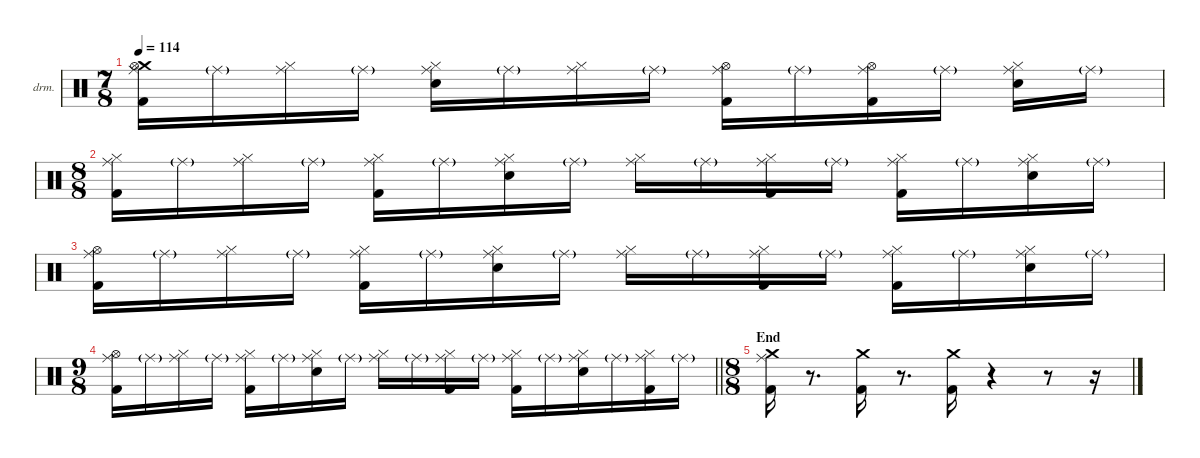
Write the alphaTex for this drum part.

\defaultSystemsLayout 4
\hideDynamics
\bracketExtendMode nobrackets
\firstSystemTrackNameOrientation horizontal
\otherSystemsTrackNameOrientation horizontal
\track ("Drums" "drm.") {instrument percussion}
\staff {score}
\articulation defaults
\ts (7 8)
\beaming (8 2 2 2 2)
\tempo 114
\clef neutral
\ks c
("Crash medium (hit)" "Ride (middle)" "Hi-Hat (open)" "Kick (hit) 2").16{dy f beam Down} "Ride (middle)"{g}.16{dy mf beam Down} ("Ride (middle)" "Hi-Hat (closed)").16{dy f beam Down} "Ride (middle)"{g}.16{dy mf beam Down} ("Ride (middle)" "Hi-Hat (closed)" "Snare (hit) 2").16{dy f beam Down} "Ride (middle)"{g}.16{dy mf beam Down} ("Ride (middle)" "Hi-Hat (closed)").16{dy f beam Down} "Ride (middle)"{g}.16{dy mf beam Down} ("Ride (middle)" "Hi-Hat (open)" "Kick (hit) 2").16{dy f beam Down} "Ride (middle)"{g}.16{dy mf beam Down} ("Ride (middle)" "Hi-Hat (open)" "Kick (hit) 2").16{dy f beam Down} "Ride (middle)"{g}.16{dy mf beam Down} ("Ride (middle)" "Hi-Hat (closed)" "Snare (hit) 2").16{dy f beam Down} "Ride (middle)"{g}.16{dy mf beam Down} |
\ts (8 8)
\beaming (8 2 2 2 2)
("Ride (middle)" "Hi-Hat (closed)" "Kick (hit) 2").16{dy f beam Down} "Ride (middle)"{g}.16{dy mf beam Down} ("Ride (middle)" "Hi-Hat (closed)").16{dy f beam Down} "Ride (middle)"{g}.16{dy mf beam Down} ("Ride (middle)" "Hi-Hat (closed)" "Kick (hit) 2").16{dy f beam Down} "Ride (middle)"{g}.16{dy mf beam Down} ("Ride (middle)" "Hi-Hat (closed)" "Snare (hit) 2").16{dy f beam Down} "Ride (middle)"{g}.16{dy mf beam Down} ("Ride (middle)" "Hi-Hat (closed)").16{dy f beam Down} "Ride (middle)"{g}.16{dy mf beam Down} ("Ride (middle)" "Hi-Hat (closed)" "Kick (hit) 2").16{dy f beam Down} "Ride (middle)"{g}.16{dy mf beam Down} ("Ride (middle)" "Hi-Hat (closed)" "Kick (hit) 2").16{dy f beam Down} "Ride (middle)"{g}.16{dy mf beam Down} ("Ride (middle)" "Hi-Hat (closed)" "Snare (hit) 2").16{dy f beam Down} "Ride (middle)"{g}.16{dy mf beam Down} |
("Ride (middle)" "Hi-Hat (open)" "Kick (hit) 2").16{dy f beam Down} "Ride (middle)"{g}.16{dy mf beam Down} ("Ride (middle)" "Hi-Hat (closed)").16{dy f beam Down} "Ride (middle)"{g}.16{dy mf beam Down} ("Ride (middle)" "Hi-Hat (closed)" "Kick (hit) 2").16{dy f beam Down} "Ride (middle)"{g}.16{dy mf beam Down} ("Ride (middle)" "Hi-Hat (closed)" "Snare (hit) 2").16{dy f beam Down} "Ride (middle)"{g}.16{dy mf beam Down} ("Ride (middle)" "Hi-Hat (closed)").16{dy f beam Down} "Ride (middle)"{g}.16{dy mf beam Down} ("Ride (middle)" "Hi-Hat (closed)" "Kick (hit) 2").16{dy f beam Down} "Ride (middle)"{g}.16{dy mf beam Down} ("Ride (middle)" "Hi-Hat (closed)" "Kick (hit) 2").16{dy f beam Down} "Ride (middle)"{g}.16{dy mf beam Down} ("Ride (middle)" "Hi-Hat (closed)" "Snare (hit) 2").16{dy f beam Down} "Ride (middle)"{g}.16{dy mf beam Down} |
\ts (9 8)
\beaming (8 2 2 2 3)
\barLineRight lightlight
("Ride (middle)" "Hi-Hat (open)" "Kick (hit) 2").16{dy f beam Down} "Ride (middle)"{g}.16{dy mf beam Down} ("Ride (middle)" "Hi-Hat (closed)").16{dy f beam Down} "Ride (middle)"{g}.16{dy mf beam Down} ("Ride (middle)" "Hi-Hat (closed)" "Kick (hit) 2").16{dy f beam Down} "Ride (middle)"{g}.16{dy mf beam Down} ("Ride (middle)" "Hi-Hat (closed)" "Snare (hit) 2").16{dy f beam Down} "Ride (middle)"{g}.16{dy mf beam Down} ("Ride (middle)" "Hi-Hat (closed)").16{dy f beam Down} "Ride (middle)"{g}.16{dy mf beam Down} ("Ride (middle)" "Hi-Hat (closed)" "Kick (hit) 2").16{dy f beam Down} "Ride (middle)"{g}.16{dy mf beam Down} ("Ride (middle)" "Hi-Hat (closed)" "Kick (hit) 2").16{dy f beam Down} "Ride (middle)"{g}.16{dy mf beam Down} ("Ride (middle)" "Hi-Hat (closed)" "Snare (hit) 2").16{dy f beam Down} "Ride (middle)"{g}.16{dy mf beam Down} ("Ride (middle)" "Hi-Hat (closed)" "Kick (hit) 2").16{dy f beam Down} "Ride (middle)"{g}.16{dy mf beam Down} |
\ts (8 8)
\beaming (8 2 2 2 2)
\section ("" "End")
("Crash medium (hit)" "Ride (middle)" "Kick (hit) 2").16{dy f beam Down} r.8{d beam Down} ("Crash medium (hit)" "Kick (hit) 2").16{beam Down} r.8{d beam Down} ("Crash medium (hit)" "Kick (hit) 2").16{beam Down} r.4{beam Down} r.8{beam Down} r.16{beam Down}
